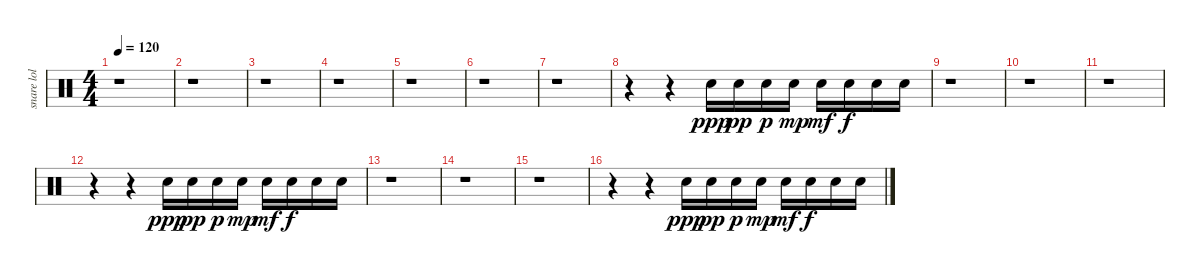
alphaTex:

\track ("snare lol lazy" "snare lol ") {instrument percussion}
\staff {score}
\articulation defaults
\ts (4 4)
\tempo 120
\clef neutral
\ks c
r.1{dy f} |
r.1 |
r.1 |
r.1 |
r.1 |
r.1 |
r.1 |
r.4 r.4 "Snare (hit) 2".16{dy ppp} "Snare (hit) 2".16{dy pp} "Snare (hit) 2".16{dy p} "Snare (hit) 2".16{dy mp} "Snare (hit) 2".16{dy mf} "Snare (hit) 2".16{dy f} "Snare (hit) 2".16 "Snare (hit) 2".16 |
r.1 |
r.1 |
r.1 |
r.4 r.4 "Snare (hit) 2".16{dy ppp} "Snare (hit) 2".16{dy pp} "Snare (hit) 2".16{dy p} "Snare (hit) 2".16{dy mp} "Snare (hit) 2".16{dy mf} "Snare (hit) 2".16{dy f} "Snare (hit) 2".16 "Snare (hit) 2".16 |
r.1 |
r.1 |
r.1 |
r.4 r.4 "Snare (hit) 2".16{dy ppp} "Snare (hit) 2".16{dy pp} "Snare (hit) 2".16{dy p} "Snare (hit) 2".16{dy mp} "Snare (hit) 2".16{dy mf} "Snare (hit) 2".16{dy f} "Snare (hit) 2".16 "Snare (hit) 2".16
